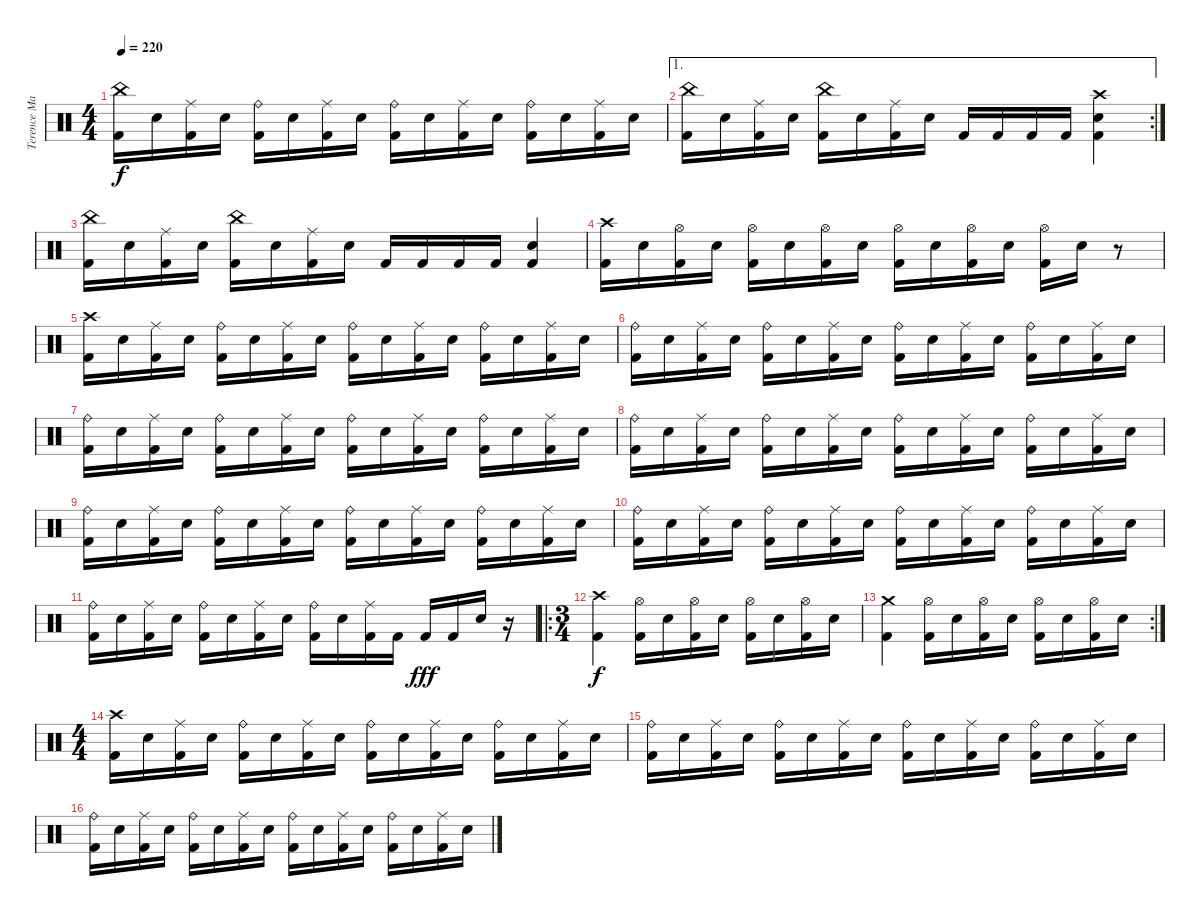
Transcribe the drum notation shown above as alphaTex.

\track ("Terence Manauis" "Terence Ma") {instrument percussion}
\staff {score}
\articulation defaults
\ts (4 4)
\tempo 220
\clef neutral
\ks c
("China (hit)" "Kick (hit) 2").16{dy f} "Electric Snare (hit)".16 ("Ride (middle)" "Kick (hit) 2").16 "Electric Snare (hit)".16 ("Ride (bell)" "Kick (hit) 2").16 "Electric Snare (hit)".16 ("Ride (middle)" "Kick (hit) 2").16 "Electric Snare (hit)".16 ("Ride (bell)" "Kick (hit) 2").16 "Electric Snare (hit)".16 ("Ride (middle)" "Kick (hit) 2").16 "Electric Snare (hit)".16 ("Ride (bell)" "Kick (hit) 2").16 "Electric Snare (hit)".16 ("Ride (middle)" "Kick (hit) 2").16 "Electric Snare (hit)".16 |
\ae 1
\rc 2
("China (hit)" "Kick (hit) 2").16 "Electric Snare (hit)".16 ("Ride (middle)" "Kick (hit) 2").16 "Electric Snare (hit)".16 ("China (hit)" "Kick (hit) 2").16 "Electric Snare (hit)".16 ("Ride (middle)" "Kick (hit) 2").16 "Electric Snare (hit)".16 "Kick (hit) 2".16 "Kick (hit) 2".16 "Kick (hit) 2".16 "Kick (hit) 2".16 ("Crash high (hit)" "Electric Snare (hit)" "Kick (hit) 2").4 |
("China (hit)" "Kick (hit) 2").16 "Electric Snare (hit)".16 ("Ride (middle)" "Kick (hit) 2").16 "Electric Snare (hit)".16 ("China (hit)" "Kick (hit) 2").16 "Electric Snare (hit)".16 ("Ride (middle)" "Kick (hit) 2").16 "Electric Snare (hit)".16 "Kick (hit) 2".16 "Kick (hit) 2".16 "Kick (hit) 2".16 "Kick (hit) 2".16 ("Electric Snare (hit)" "Kick (hit) 2").4 |
("Crash high (hit)" "Kick (hit) 2").16 "Electric Snare (hit)".16 ("Hi-Hat (open)" "Kick (hit) 2").16 "Electric Snare (hit)".16 ("Hi-Hat (open)" "Kick (hit) 2").16 "Electric Snare (hit)".16 ("Hi-Hat (open)" "Kick (hit) 2").16 "Electric Snare (hit)".16 ("Hi-Hat (open)" "Kick (hit) 2").16 "Electric Snare (hit)".16 ("Hi-Hat (open)" "Kick (hit) 2").16 "Electric Snare (hit)".16 ("Hi-Hat (open)" "Kick (hit) 2").16 "Electric Snare (hit)".16 r.8 |
("Crash high (hit)" "Kick (hit) 2").16 "Electric Snare (hit)".16 ("Ride (middle)" "Kick (hit) 2").16 "Electric Snare (hit)".16 ("Ride (bell)" "Kick (hit) 2").16 "Electric Snare (hit)".16 ("Ride (middle)" "Kick (hit) 2").16 "Electric Snare (hit)".16 ("Ride (bell)" "Kick (hit) 2").16 "Electric Snare (hit)".16 ("Ride (middle)" "Kick (hit) 2").16 "Electric Snare (hit)".16 ("Ride (bell)" "Kick (hit) 2").16 "Electric Snare (hit)".16 ("Ride (middle)" "Kick (hit) 2").16 "Electric Snare (hit)".16 |
("Ride (bell)" "Kick (hit) 2").16 "Electric Snare (hit)".16 ("Ride (middle)" "Kick (hit) 2").16 "Electric Snare (hit)".16 ("Ride (bell)" "Kick (hit) 2").16 "Electric Snare (hit)".16 ("Ride (middle)" "Kick (hit) 2").16 "Electric Snare (hit)".16 ("Ride (bell)" "Kick (hit) 2").16 "Electric Snare (hit)".16 ("Ride (middle)" "Kick (hit) 2").16 "Electric Snare (hit)".16 ("Ride (bell)" "Kick (hit) 2").16 "Electric Snare (hit)".16 ("Ride (middle)" "Kick (hit) 2").16 "Electric Snare (hit)".16 |
("Ride (bell)" "Kick (hit) 2").16 "Electric Snare (hit)".16 ("Ride (middle)" "Kick (hit) 2").16 "Electric Snare (hit)".16 ("Ride (bell)" "Kick (hit) 2").16 "Electric Snare (hit)".16 ("Ride (middle)" "Kick (hit) 2").16 "Electric Snare (hit)".16 ("Ride (bell)" "Kick (hit) 2").16 "Electric Snare (hit)".16 ("Ride (middle)" "Kick (hit) 2").16 "Electric Snare (hit)".16 ("Ride (bell)" "Kick (hit) 2").16 "Electric Snare (hit)".16 ("Ride (middle)" "Kick (hit) 2").16 "Electric Snare (hit)".16 |
("Ride (bell)" "Kick (hit) 2").16 "Electric Snare (hit)".16 ("Ride (middle)" "Kick (hit) 2").16 "Electric Snare (hit)".16 ("Ride (bell)" "Kick (hit) 2").16 "Electric Snare (hit)".16 ("Ride (middle)" "Kick (hit) 2").16 "Electric Snare (hit)".16 ("Ride (bell)" "Kick (hit) 2").16 "Electric Snare (hit)".16 ("Ride (middle)" "Kick (hit) 2").16 "Electric Snare (hit)".16 ("Ride (bell)" "Kick (hit) 2").16 "Electric Snare (hit)".16 ("Ride (middle)" "Kick (hit) 2").16 "Electric Snare (hit)".16 |
("Ride (bell)" "Kick (hit) 2").16 "Electric Snare (hit)".16 ("Ride (middle)" "Kick (hit) 2").16 "Electric Snare (hit)".16 ("Ride (bell)" "Kick (hit) 2").16 "Electric Snare (hit)".16 ("Ride (middle)" "Kick (hit) 2").16 "Electric Snare (hit)".16 ("Ride (bell)" "Kick (hit) 2").16 "Electric Snare (hit)".16 ("Ride (middle)" "Kick (hit) 2").16 "Electric Snare (hit)".16 ("Ride (bell)" "Kick (hit) 2").16 "Electric Snare (hit)".16 ("Ride (middle)" "Kick (hit) 2").16 "Electric Snare (hit)".16 |
("Ride (bell)" "Kick (hit) 2").16 "Electric Snare (hit)".16 ("Ride (middle)" "Kick (hit) 2").16 "Electric Snare (hit)".16 ("Ride (bell)" "Kick (hit) 2").16 "Electric Snare (hit)".16 ("Ride (middle)" "Kick (hit) 2").16 "Electric Snare (hit)".16 ("Ride (bell)" "Kick (hit) 2").16 "Electric Snare (hit)".16 ("Ride (middle)" "Kick (hit) 2").16 "Electric Snare (hit)".16 ("Ride (bell)" "Kick (hit) 2").16 "Electric Snare (hit)".16 ("Ride (middle)" "Kick (hit) 2").16 "Electric Snare (hit)".16 |
("Ride (bell)" "Kick (hit) 2").16 "Electric Snare (hit)".16 ("Ride (middle)" "Kick (hit) 2").16 "Electric Snare (hit)".16 ("Ride (bell)" "Kick (hit) 2").16 "Electric Snare (hit)".16 ("Ride (middle)" "Kick (hit) 2").16 "Electric Snare (hit)".16 ("Ride (bell)" "Kick (hit) 2").16 "Electric Snare (hit)".16 ("Ride (middle)" "Kick (hit) 2").16 "Kick (hit) 2".16 "Kick (hit) 2".16{dy fff} "Kick (hit) 2".16 "Electric Snare (hit)".16 r.16 |
\ro
\ts (3 4)
("Crash high (hit)" "Kick (hit) 2").4{dy f} ("Hi-Hat (open)" "Kick (hit) 2").16 "Electric Snare (hit)".16 ("Hi-Hat (open)" "Kick (hit) 2").16 "Electric Snare (hit)".16 ("Hi-Hat (open)" "Kick (hit) 2").16 "Electric Snare (hit)".16 ("Hi-Hat (open)" "Kick (hit) 2").16 "Electric Snare (hit)".16 |
\rc 2
("Crash medium (hit)" "Kick (hit) 2").4 ("Hi-Hat (open)" "Kick (hit) 2").16 "Electric Snare (hit)".16 ("Hi-Hat (open)" "Kick (hit) 2").16 "Electric Snare (hit)".16 ("Hi-Hat (open)" "Kick (hit) 2").16 "Electric Snare (hit)".16 ("Hi-Hat (open)" "Kick (hit) 2").16 "Electric Snare (hit)".16 |
\ts (4 4)
("Crash high (hit)" "Kick (hit) 2").16 "Electric Snare (hit)".16 ("Ride (middle)" "Kick (hit) 2").16 "Electric Snare (hit)".16 ("Ride (bell)" "Kick (hit) 2").16 "Electric Snare (hit)".16 ("Ride (middle)" "Kick (hit) 2").16 "Electric Snare (hit)".16 ("Ride (bell)" "Kick (hit) 2").16 "Electric Snare (hit)".16 ("Ride (middle)" "Kick (hit) 2").16 "Electric Snare (hit)".16 ("Ride (bell)" "Kick (hit) 2").16 "Electric Snare (hit)".16 ("Ride (middle)" "Kick (hit) 2").16 "Electric Snare (hit)".16 |
("Ride (bell)" "Kick (hit) 2").16 "Electric Snare (hit)".16 ("Ride (middle)" "Kick (hit) 2").16 "Electric Snare (hit)".16 ("Ride (bell)" "Kick (hit) 2").16 "Electric Snare (hit)".16 ("Ride (middle)" "Kick (hit) 2").16 "Electric Snare (hit)".16 ("Ride (bell)" "Kick (hit) 2").16 "Electric Snare (hit)".16 ("Ride (middle)" "Kick (hit) 2").16 "Electric Snare (hit)".16 ("Ride (bell)" "Kick (hit) 2").16 "Electric Snare (hit)".16 ("Ride (middle)" "Kick (hit) 2").16 "Electric Snare (hit)".16 |
("Ride (bell)" "Kick (hit) 2").16 "Electric Snare (hit)".16 ("Ride (middle)" "Kick (hit) 2").16 "Electric Snare (hit)".16 ("Ride (bell)" "Kick (hit) 2").16 "Electric Snare (hit)".16 ("Ride (middle)" "Kick (hit) 2").16 "Electric Snare (hit)".16 ("Ride (bell)" "Kick (hit) 2").16 "Electric Snare (hit)".16 ("Ride (middle)" "Kick (hit) 2").16 "Electric Snare (hit)".16 ("Ride (bell)" "Kick (hit) 2").16 "Electric Snare (hit)".16 ("Ride (middle)" "Kick (hit) 2").16 "Electric Snare (hit)".16
